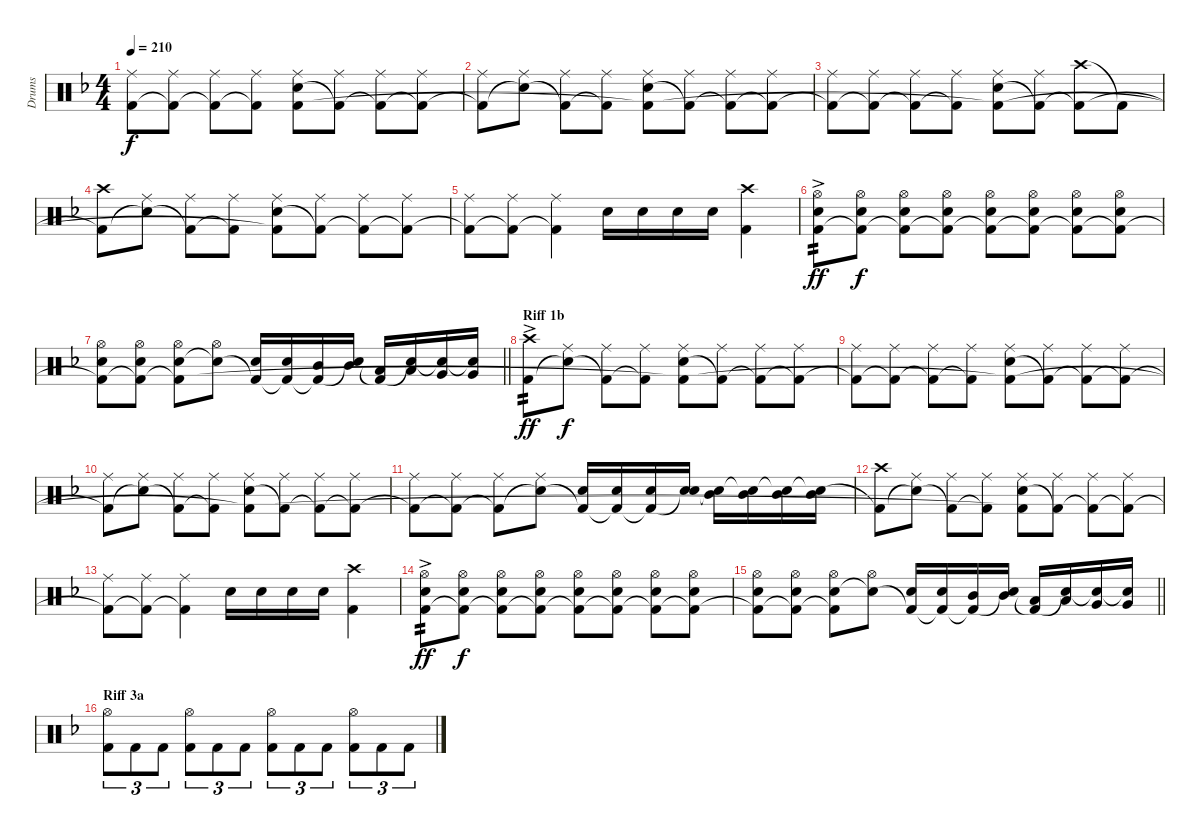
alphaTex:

\track ("Drums" "Drums") {instrument percussion}
\staff {score}
\articulation defaults
\ts (4 4)
\tempo 210
\clef neutral
\ks dminor
("Ride (middle)" "Kick (hit) 2"{t}).8{dy f} ("Ride (middle)" "Kick (hit) 2"{t}).8 ("Ride (middle)" "Kick (hit) 2"{t}).8 ("Ride (middle)" "Kick (hit) 2"{t}).8 ("Ride (middle)" "Electric Snare (hit)" "Kick (hit) 2"{t}).8 ("Ride (middle)" "Kick (hit) 2"{t}).8 ("Ride (middle)" "Kick (hit) 2"{t}).8 ("Ride (middle)" "Kick (hit) 2"{t}).8 |
("Ride (middle)" "Kick (hit) 2"{t}).8 ("Ride (middle)" "Snare (hit)"{t}).8 ("Ride (middle)" "Kick (hit) 2"{t}).8 ("Ride (middle)" "Kick (hit) 2"{t}).8 ("Ride (middle)" "Electric Snare (hit)" "Kick (hit) 2"{t}).8 ("Ride (middle)" "Kick (hit) 2"{t}).8 ("Ride (middle)" "Kick (hit) 2"{t}).8 ("Ride (middle)" "Kick (hit) 2"{t}).8 |
("Ride (middle)" "Kick (hit) 2"{t}).8 ("Ride (middle)" "Kick (hit) 2"{t}).8 ("Ride (middle)" "Kick (hit) 2"{t}).8 ("Ride (middle)" "Kick (hit) 2"{t}).8 ("Ride (middle)" "Electric Snare (hit)" "Kick (hit) 2"{t}).8 ("Ride (middle)" "Kick (hit) 2"{t}).8 ("Crash high (hit)" "Kick (hit) 2"{t}).8 "Kick (hit) 2"{t}.8 |
("Crash high (hit)" "Kick (hit) 2"{t}).8 ("Ride (middle)" "Snare (hit)"{t}).8 ("Ride (middle)" "Kick (hit) 2"{t}).8 ("Ride (middle)" "Kick (hit) 2"{t}).8 ("Ride (middle)" "Electric Snare (hit)" "Kick (hit) 2"{t}).8 ("Ride (middle)" "Kick (hit) 2"{t}).8 ("Ride (middle)" "Kick (hit) 2"{t}).8 ("Ride (middle)" "Kick (hit) 2"{t}).8 |
("Ride (middle)" "Kick (hit) 2"{t}).8 ("Ride (middle)" "Kick (hit) 2"{t}).8 ("Ride (middle)" "Kick (hit) 2"{t}).4 "Electric Snare (hit)".16 "Electric Snare (hit)".16 "Electric Snare (hit)".16 "Electric Snare (hit)".16 ("Crash high (hit)" "Kick (hit) 2").4 |
("Hi-Hat (open)" "Electric Snare (hit)" "Kick (hit) 2"{ac}).8{tp 2 dy ff} ("Hi-Hat (open)" "Electric Snare (hit)" "Kick (hit) 2"{t}).8{dy f} ("Hi-Hat (open)" "Electric Snare (hit)" "Kick (hit) 2"{t}).8 ("Hi-Hat (open)" "Electric Snare (hit)" "Kick (hit) 2"{t}).8 ("Hi-Hat (open)" "Electric Snare (hit)" "Kick (hit) 2"{t}).8 ("Hi-Hat (open)" "Electric Snare (hit)" "Kick (hit) 2"{t}).8 ("Hi-Hat (open)" "Electric Snare (hit)" "Kick (hit) 2"{t}).8 ("Hi-Hat (open)" "Electric Snare (hit)" "Kick (hit) 2"{t}).8 |
\barLineRight lightlight
("Hi-Hat (open)" "Electric Snare (hit)" "Kick (hit) 2"{t}).8 ("Hi-Hat (open)" "Electric Snare (hit)" "Kick (hit) 2"{t}).8 ("Hi-Hat (open)" "Electric Snare (hit)" "Kick (hit) 2"{t}).8 ("Hi-Hat (open)" "Snare (hit)"{t}).8 ("Electric Snare (hit)" "Kick (hit) 2"{t}).16 ("Electric Snare (hit)" "Kick (hit) 2"{t}).16 ("Mid Tom (hit)" "Kick (hit) 2"{t}).16 ("Mid Tom (hit)" "Snare (hit)"{t}).16 ("Low Tom (hit)" "Kick (hit) 2"{t}).16 ("Low Tom (hit)" "Snare (hit)"{t}).16 ("Very Low Tom (hit)" "Snare (hit)"{t}).16 ("Very Low Tom (hit)" "Snare (hit)"{t}).16 |
\section ("" "Riff 1b")
("Crash high (hit)" "Kick (hit) 2"{ac}).8{tp 2 dy ff} ("Ride (middle)" "Snare (hit)"{t}).8{dy f} ("Ride (middle)" "Kick (hit) 2"{t}).8 ("Ride (middle)" "Kick (hit) 2"{t}).8 ("Ride (middle)" "Electric Snare (hit)" "Kick (hit) 2"{t}).8 ("Ride (middle)" "Kick (hit) 2"{t}).8 ("Ride (middle)" "Kick (hit) 2"{t}).8 ("Ride (middle)" "Kick (hit) 2"{t}).8 |
("Ride (middle)" "Kick (hit) 2"{t}).8 ("Ride (middle)" "Kick (hit) 2"{t}).8 ("Ride (middle)" "Kick (hit) 2"{t}).8 ("Ride (middle)" "Kick (hit) 2"{t}).8 ("Ride (middle)" "Electric Snare (hit)" "Kick (hit) 2"{t}).8 ("Ride (middle)" "Kick (hit) 2"{t}).8 ("Ride (middle)" "Kick (hit) 2"{t}).8 ("Ride (middle)" "Kick (hit) 2"{t}).8 |
("Ride (middle)" "Kick (hit) 2"{t}).8 ("Ride (middle)" "Snare (hit)"{t}).8 ("Ride (middle)" "Kick (hit) 2"{t}).8 ("Ride (middle)" "Kick (hit) 2"{t}).8 ("Ride (middle)" "Electric Snare (hit)" "Kick (hit) 2"{t}).8 ("Ride (middle)" "Kick (hit) 2"{t}).8 ("Ride (middle)" "Kick (hit) 2"{t}).8 ("Ride (middle)" "Kick (hit) 2"{t}).8 |
("Ride (middle)" "Kick (hit) 2"{t}).8 ("Ride (middle)" "Kick (hit) 2"{t}).8 ("Ride (middle)" "Kick (hit) 2"{t}).8 ("Ride (middle)" "Snare (hit)"{t}).8 ("Electric Snare (hit)" "Kick (hit) 2"{t}).16 ("Electric Snare (hit)" "Kick (hit) 2"{t}).16 ("Electric Snare (hit)" "Kick (hit) 2"{t}).16 ("Electric Snare (hit)" "Snare (hit)"{t}).16 ("Mid Tom (hit)" "Snare (hit)"{t}).16 ("Mid Tom (hit)" "Snare (hit)"{t}).16 ("Mid Tom (hit)" "Snare (hit)"{t}).16 ("Mid Tom (hit)" "Snare (hit)"{t}).16 |
("Crash high (hit)" "Kick (hit) 2"{t}).8 ("Ride (middle)" "Snare (hit)"{t}).8 ("Ride (middle)" "Kick (hit) 2"{t}).8 ("Ride (middle)" "Kick (hit) 2"{t}).8 ("Ride (middle)" "Electric Snare (hit)" "Kick (hit) 2"{t}).8 ("Ride (middle)" "Kick (hit) 2"{t}).8 ("Ride (middle)" "Kick (hit) 2"{t}).8 ("Ride (middle)" "Kick (hit) 2"{t}).8 |
("Ride (middle)" "Kick (hit) 2"{t}).8 ("Ride (middle)" "Kick (hit) 2"{t}).8 ("Ride (middle)" "Kick (hit) 2"{t}).4 "Electric Snare (hit)".16 "Electric Snare (hit)".16 "Electric Snare (hit)".16 "Electric Snare (hit)".16 ("Crash high (hit)" "Kick (hit) 2").4 |
("Hi-Hat (open)" "Electric Snare (hit)" "Kick (hit) 2"{ac}).8{tp 2 dy ff} ("Hi-Hat (open)" "Electric Snare (hit)" "Kick (hit) 2"{t}).8{dy f} ("Hi-Hat (open)" "Electric Snare (hit)" "Kick (hit) 2"{t}).8 ("Hi-Hat (open)" "Electric Snare (hit)" "Kick (hit) 2"{t}).8 ("Hi-Hat (open)" "Electric Snare (hit)" "Kick (hit) 2"{t}).8 ("Hi-Hat (open)" "Electric Snare (hit)" "Kick (hit) 2"{t}).8 ("Hi-Hat (open)" "Electric Snare (hit)" "Kick (hit) 2"{t}).8 ("Hi-Hat (open)" "Electric Snare (hit)" "Kick (hit) 2"{t}).8 |
\barLineRight lightlight
("Hi-Hat (open)" "Electric Snare (hit)" "Kick (hit) 2"{t}).8 ("Hi-Hat (open)" "Electric Snare (hit)" "Kick (hit) 2"{t}).8 ("Hi-Hat (open)" "Electric Snare (hit)" "Kick (hit) 2"{t}).8 ("Hi-Hat (open)" "Snare (hit)"{t}).8 ("Electric Snare (hit)" "Kick (hit) 2"{t}).16 ("Electric Snare (hit)" "Kick (hit) 2"{t}).16 ("Mid Tom (hit)" "Kick (hit) 2"{t}).16 ("Mid Tom (hit)" "Snare (hit)"{t}).16 ("Low Tom (hit)" "Kick (hit) 2"{t}).16 ("Low Tom (hit)" "Snare (hit)"{t}).16 ("Very Low Tom (hit)" "Snare (hit)"{t}).16 ("Very Low Tom (hit)" "Snare (hit)"{t}).16 |
\section ("" "Riff 3a")
("Hi-Hat (open)" "Kick (hit) 2").8{tu (3 2)} "Kick (hit) 2".8{tu (3 2)} "Kick (hit) 2".8{tu (3 2)} ("Hi-Hat (open)" "Kick (hit) 2").8{tu (3 2)} "Kick (hit) 2".8{tu (3 2)} "Kick (hit) 2".8{tu (3 2)} ("Hi-Hat (open)" "Kick (hit) 2").8{tu (3 2)} "Kick (hit) 2".8{tu (3 2)} "Kick (hit) 2".8{tu (3 2)} ("Hi-Hat (open)" "Kick (hit) 2").8{tu (3 2)} "Kick (hit) 2".8{tu (3 2)} "Kick (hit) 2".8{tu (3 2)}
